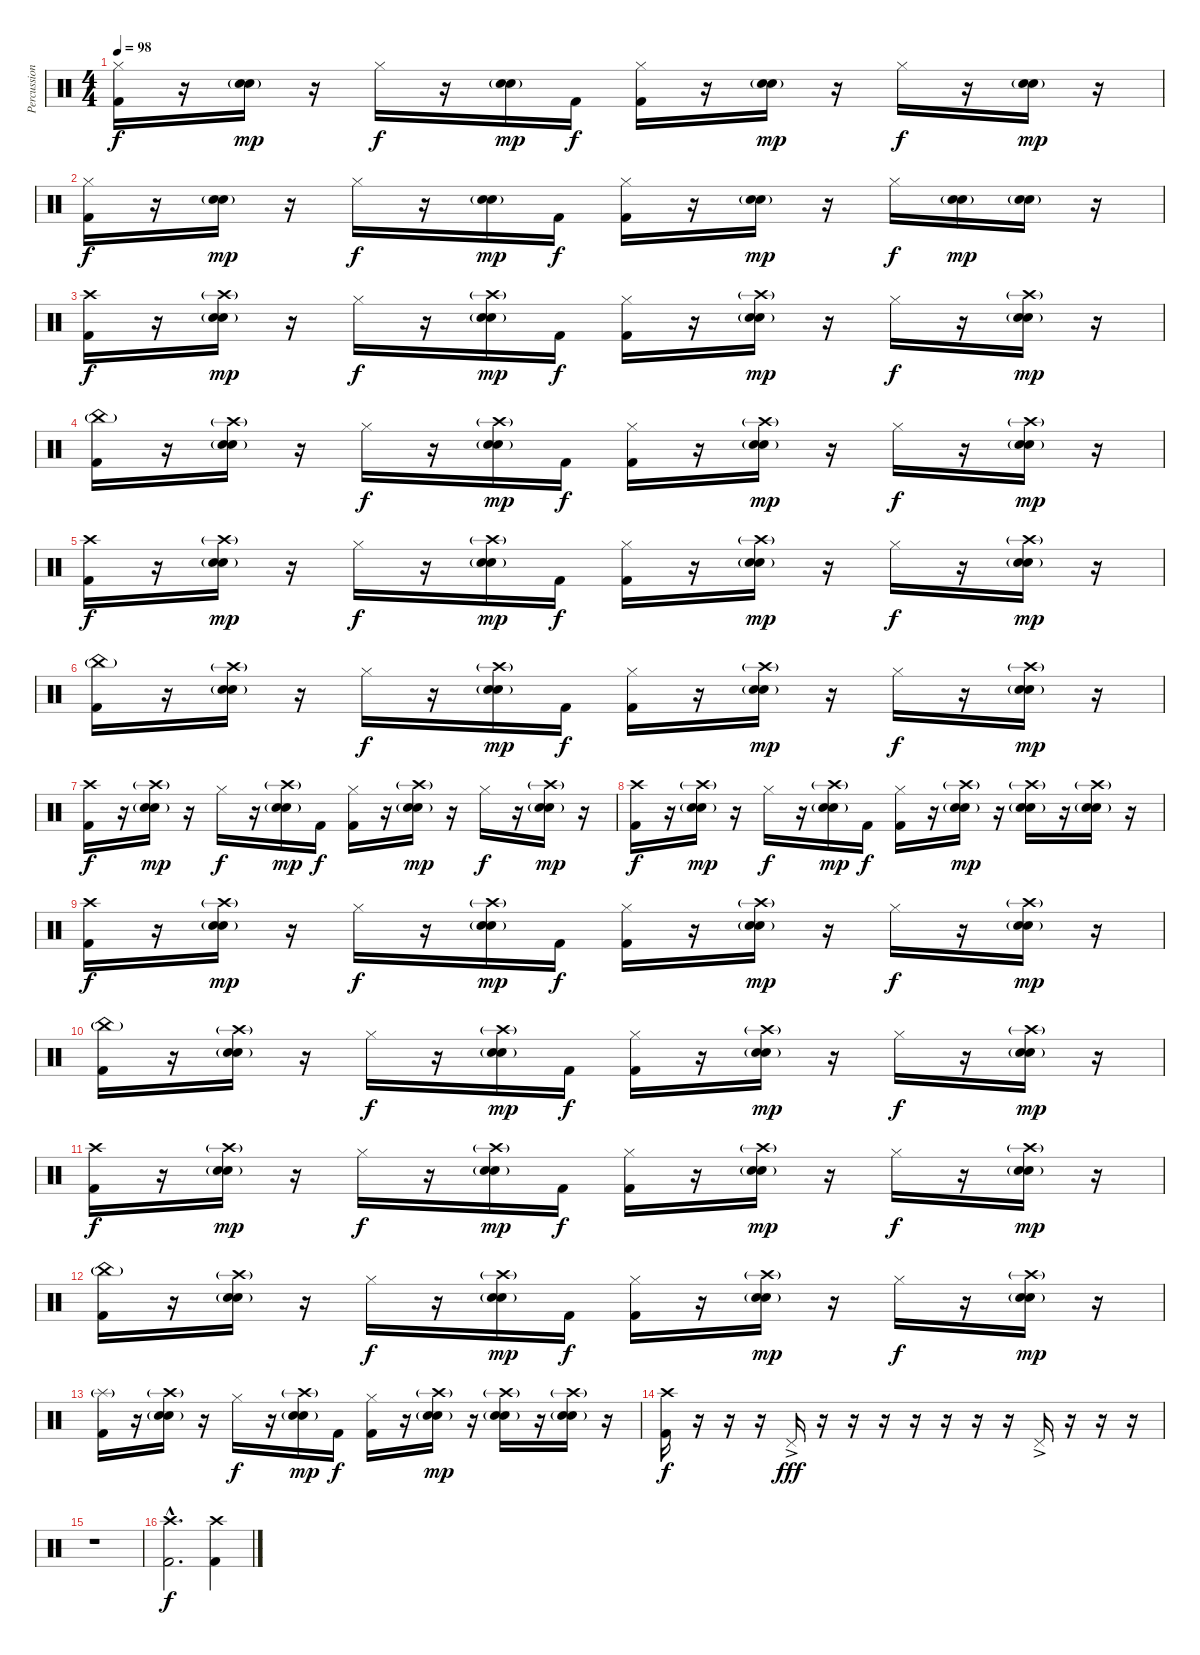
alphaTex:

\track ("Percussion" "Percussion") {instrument percussion}
\staff {score}
\articulation defaults
\ts (4 4)
\tempo 98
\clef neutral
\ks c
("Hi-Hat (closed)" "Kick (hit) 2").16{dy f} r.16 ("Snare (hit) 2" "Electric Snare (hit)"{g}).16{dy mp} r.16 "Hi-Hat (closed)".16{dy f} r.16 ("Snare (hit) 2" "Electric Snare (hit)"{g}).16{dy mp} "Kick (hit) 2".16{dy f} ("Hi-Hat (closed)" "Kick (hit) 2").16 r.16 ("Snare (hit) 2" "Electric Snare (hit)"{g}).16{dy mp} r.16 "Hi-Hat (closed)".16{dy f} r.16 ("Snare (hit) 2" "Electric Snare (hit)"{g}).16{dy mp} r.16 |
("Hi-Hat (closed)" "Kick (hit) 2").16{dy f} r.16 ("Snare (hit) 2" "Electric Snare (hit)"{g}).16{dy mp} r.16 "Hi-Hat (closed)".16{dy f} r.16 ("Snare (hit) 2" "Electric Snare (hit)"{g}).16{dy mp} "Kick (hit) 2".16{dy f} ("Hi-Hat (closed)" "Kick (hit) 2").16 r.16 ("Snare (hit) 2" "Electric Snare (hit)"{g}).16{dy mp} r.16 "Hi-Hat (closed)".16{dy f} ("Snare (hit) 2" "Electric Snare (hit)"{g}).16{dy mp} ("Snare (hit) 2" "Electric Snare (hit)"{g}).16 r.16 |
("Crash high (hit)" "Kick (hit) 2").16{dy f} r.16 ("Snare (hit) 2" "Crash high (hit)"{g} "Electric Snare (hit)"{g}).16{dy mp} r.16 "Hi-Hat (closed)".16{dy f} r.16 ("Snare (hit) 2" "Crash high (hit)"{g} "Electric Snare (hit)"{g}).16{dy mp} "Kick (hit) 2".16{dy f} ("Hi-Hat (closed)" "Kick (hit) 2").16 r.16 ("Snare (hit) 2" "Crash high (hit)"{g} "Electric Snare (hit)"{g}).16{dy mp} r.16 "Hi-Hat (closed)".16{dy f} r.16 ("Snare (hit) 2" "Crash high (hit)"{g} "Electric Snare (hit)"{g}).16{dy mp} r.16 |
("China (hit)"{g} "Kick (hit) 2").16 r.16 ("Snare (hit) 2" "Crash high (hit)"{g} "Electric Snare (hit)"{g}).16 r.16 "Hi-Hat (closed)".16{dy f} r.16 ("Snare (hit) 2" "Crash high (hit)"{g} "Electric Snare (hit)"{g}).16{dy mp} "Kick (hit) 2".16{dy f} ("Hi-Hat (closed)" "Kick (hit) 2").16 r.16 ("Snare (hit) 2" "Crash high (hit)"{g} "Electric Snare (hit)"{g}).16{dy mp} r.16 "Hi-Hat (closed)".16{dy f} r.16 ("Snare (hit) 2" "Crash high (hit)"{g} "Electric Snare (hit)"{g}).16{dy mp} r.16 |
("Crash high (hit)" "Kick (hit) 2").16{dy f} r.16 ("Snare (hit) 2" "Crash high (hit)"{g} "Electric Snare (hit)"{g}).16{dy mp} r.16 "Hi-Hat (closed)".16{dy f} r.16 ("Snare (hit) 2" "Crash high (hit)"{g} "Electric Snare (hit)"{g}).16{dy mp} "Kick (hit) 2".16{dy f} ("Hi-Hat (closed)" "Kick (hit) 2").16 r.16 ("Snare (hit) 2" "Crash high (hit)"{g} "Electric Snare (hit)"{g}).16{dy mp} r.16 "Hi-Hat (closed)".16{dy f} r.16 ("Snare (hit) 2" "Crash high (hit)"{g} "Electric Snare (hit)"{g}).16{dy mp} r.16 |
("China (hit)"{g} "Kick (hit) 2").16 r.16 ("Snare (hit) 2" "Crash high (hit)"{g} "Electric Snare (hit)"{g}).16 r.16 "Hi-Hat (closed)".16{dy f} r.16 ("Snare (hit) 2" "Crash high (hit)"{g} "Electric Snare (hit)"{g}).16{dy mp} "Kick (hit) 2".16{dy f} ("Hi-Hat (closed)" "Kick (hit) 2").16 r.16 ("Snare (hit) 2" "Crash high (hit)"{g} "Electric Snare (hit)"{g}).16{dy mp} r.16 "Hi-Hat (closed)".16{dy f} r.16 ("Snare (hit) 2" "Crash high (hit)"{g} "Electric Snare (hit)"{g}).16{dy mp} r.16 |
("Crash high (hit)" "Kick (hit) 2").16{dy f} r.16 ("Snare (hit) 2" "Crash high (hit)"{g} "Electric Snare (hit)"{g}).16{dy mp} r.16 "Hi-Hat (closed)".16{dy f} r.16 ("Snare (hit) 2" "Crash high (hit)"{g} "Electric Snare (hit)"{g}).16{dy mp} "Kick (hit) 2".16{dy f} ("Hi-Hat (closed)" "Kick (hit) 2").16 r.16 ("Snare (hit) 2" "Crash high (hit)"{g} "Electric Snare (hit)"{g}).16{dy mp} r.16 "Hi-Hat (closed)".16{dy f} r.16 ("Snare (hit) 2" "Crash high (hit)"{g} "Electric Snare (hit)"{g}).16{dy mp} r.16 |
("Crash high (hit)" "Kick (hit) 2").16{dy f} r.16 ("Snare (hit) 2" "Crash high (hit)"{g} "Electric Snare (hit)"{g}).16{dy mp} r.16 "Hi-Hat (closed)".16{dy f} r.16 ("Snare (hit) 2" "Crash high (hit)"{g} "Electric Snare (hit)"{g}).16{dy mp} "Kick (hit) 2".16{dy f} ("Hi-Hat (closed)" "Kick (hit) 2").16 r.16 ("Snare (hit) 2" "Crash high (hit)"{g} "Electric Snare (hit)"{g}).16{dy mp} r.16 ("Snare (hit) 2" "Crash high (hit)"{g} "Electric Snare (hit)"{g}).16 r.16 ("Snare (hit) 2" "Crash high (hit)"{g} "Electric Snare (hit)"{g}).16 r.16 |
("Crash high (hit)" "Kick (hit) 2").16{dy f} r.16 ("Snare (hit) 2" "Crash high (hit)"{g} "Electric Snare (hit)"{g}).16{dy mp} r.16 "Hi-Hat (closed)".16{dy f} r.16 ("Snare (hit) 2" "Crash high (hit)"{g} "Electric Snare (hit)"{g}).16{dy mp} "Kick (hit) 2".16{dy f} ("Hi-Hat (closed)" "Kick (hit) 2").16 r.16 ("Snare (hit) 2" "Crash high (hit)"{g} "Electric Snare (hit)"{g}).16{dy mp} r.16 "Hi-Hat (closed)".16{dy f} r.16 ("Snare (hit) 2" "Crash high (hit)"{g} "Electric Snare (hit)"{g}).16{dy mp} r.16 |
("China (hit)"{g} "Kick (hit) 2").16 r.16 ("Snare (hit) 2" "Crash high (hit)"{g} "Electric Snare (hit)"{g}).16 r.16 "Hi-Hat (closed)".16{dy f} r.16 ("Snare (hit) 2" "Crash high (hit)"{g} "Electric Snare (hit)"{g}).16{dy mp} "Kick (hit) 2".16{dy f} ("Hi-Hat (closed)" "Kick (hit) 2").16 r.16 ("Snare (hit) 2" "Crash high (hit)"{g} "Electric Snare (hit)"{g}).16{dy mp} r.16 "Hi-Hat (closed)".16{dy f} r.16 ("Snare (hit) 2" "Crash high (hit)"{g} "Electric Snare (hit)"{g}).16{dy mp} r.16 |
("Crash high (hit)" "Kick (hit) 2").16{dy f} r.16 ("Snare (hit) 2" "Crash high (hit)"{g} "Electric Snare (hit)"{g}).16{dy mp} r.16 "Hi-Hat (closed)".16{dy f} r.16 ("Snare (hit) 2" "Crash high (hit)"{g} "Electric Snare (hit)"{g}).16{dy mp} "Kick (hit) 2".16{dy f} ("Hi-Hat (closed)" "Kick (hit) 2").16 r.16 ("Snare (hit) 2" "Crash high (hit)"{g} "Electric Snare (hit)"{g}).16{dy mp} r.16 "Hi-Hat (closed)".16{dy f} r.16 ("Snare (hit) 2" "Crash high (hit)"{g} "Electric Snare (hit)"{g}).16{dy mp} r.16 |
("China (hit)"{g} "Kick (hit) 2").16 r.16 ("Snare (hit) 2" "Crash high (hit)"{g} "Electric Snare (hit)"{g}).16 r.16 "Hi-Hat (closed)".16{dy f} r.16 ("Snare (hit) 2" "Crash high (hit)"{g} "Electric Snare (hit)"{g}).16{dy mp} "Kick (hit) 2".16{dy f} ("Hi-Hat (closed)" "Kick (hit) 2").16 r.16 ("Snare (hit) 2" "Crash high (hit)"{g} "Electric Snare (hit)"{g}).16{dy mp} r.16 "Hi-Hat (closed)".16{dy f} r.16 ("Snare (hit) 2" "Crash high (hit)"{g} "Electric Snare (hit)"{g}).16{dy mp} r.16 |
("Splash (hit)"{g} "Kick (hit) 2").16 r.16 ("Snare (hit) 2" "Crash high (hit)"{g} "Electric Snare (hit)"{g}).16 r.16 "Hi-Hat (closed)".16{dy f} r.16 ("Snare (hit) 2" "Crash high (hit)"{g} "Electric Snare (hit)"{g}).16{dy mp} "Kick (hit) 2".16{dy f} ("Hi-Hat (closed)" "Kick (hit) 2").16 r.16 ("Snare (hit) 2" "Crash high (hit)"{g} "Electric Snare (hit)"{g}).16{dy mp} r.16 ("Snare (hit) 2" "Crash high (hit)"{g} "Electric Snare (hit)"{g}).16 r.16 ("Snare (hit) 2" "Crash high (hit)"{g} "Electric Snare (hit)"{g}).16 r.16 |
("Crash high (hit)" "Kick (hit) 2").16{dy f} r.16 r.16 r.16 "Pedal Hi-Hat (hit)"{ac}.16{dy fff} r.16 r.16 r.16 r.16 r.16 r.16 r.16 "Pedal Hi-Hat (hit)"{ac}.16 r.16 r.16 r.16 |
r.1 |
("Crash high (hit)"{hac} "Kick (hit) 2"{hac}).2{d dy f} ("Crash high (hit)" "Kick (hit) 2").4
